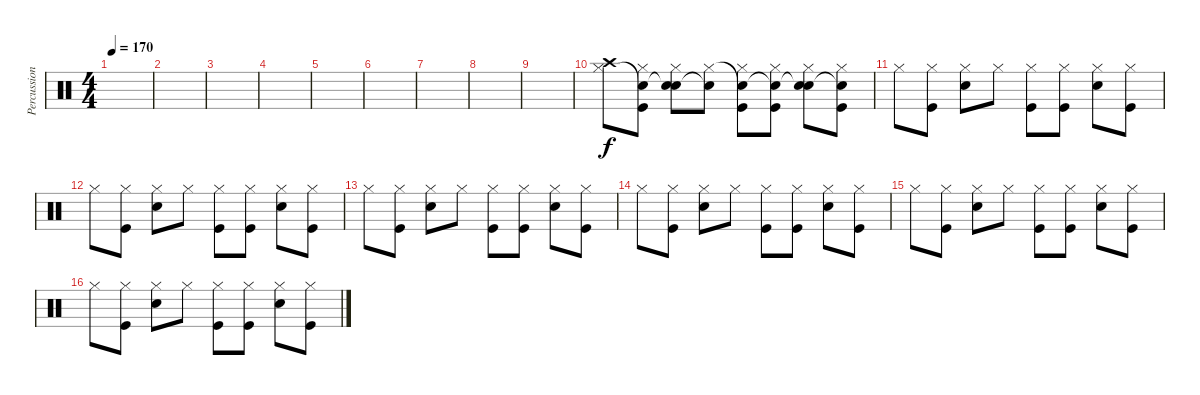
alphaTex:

\track ("Percussion" "Percussion") {instrument percussion}
\staff {score}
\articulation defaults
\ts (4 4)
\tempo 170
\clef neutral
\ks c
|
|
|
|
|
|
|
|
|
("Crash high (hit)" "Hi-Hat (closed)").8 ("Kick (hit)" "Snare (hit)"{t} "Hi-Hat (closed)").8 ("Electric Snare (hit)" "Snare (hit)"{t} "Hi-Hat (closed)").8 ("Snare (hit)"{t} "Hi-Hat (closed)").8 ("Kick (hit)" "Snare (hit)"{t} "Hi-Hat (closed)").8 ("Kick (hit)" "Snare (hit)"{t} "Hi-Hat (closed)").8 ("Electric Snare (hit)" "Snare (hit)"{t} "Hi-Hat (closed)").8 ("Kick (hit)" "Snare (hit)"{t} "Hi-Hat (closed)").8 |
"Hi-Hat (closed)".8 ("Kick (hit)" "Hi-Hat (closed)").8 ("Electric Snare (hit)" "Hi-Hat (closed)").8 "Hi-Hat (closed)".8 ("Kick (hit)" "Hi-Hat (closed)").8 ("Kick (hit)" "Hi-Hat (closed)").8 ("Electric Snare (hit)" "Hi-Hat (closed)").8 ("Kick (hit)" "Hi-Hat (closed)").8 |
"Hi-Hat (closed)".8 ("Kick (hit)" "Hi-Hat (closed)").8 ("Electric Snare (hit)" "Hi-Hat (closed)").8 "Hi-Hat (closed)".8 ("Kick (hit)" "Hi-Hat (closed)").8 ("Kick (hit)" "Hi-Hat (closed)").8 ("Electric Snare (hit)" "Hi-Hat (closed)").8 ("Kick (hit)" "Hi-Hat (closed)").8 |
"Hi-Hat (closed)".8 ("Kick (hit)" "Hi-Hat (closed)").8 ("Electric Snare (hit)" "Hi-Hat (closed)").8 "Hi-Hat (closed)".8 ("Kick (hit)" "Hi-Hat (closed)").8 ("Kick (hit)" "Hi-Hat (closed)").8 ("Electric Snare (hit)" "Hi-Hat (closed)").8 ("Kick (hit)" "Hi-Hat (closed)").8 |
"Hi-Hat (closed)".8 ("Kick (hit)" "Hi-Hat (closed)").8 ("Electric Snare (hit)" "Hi-Hat (closed)").8 "Hi-Hat (closed)".8 ("Kick (hit)" "Hi-Hat (closed)").8 ("Kick (hit)" "Hi-Hat (closed)").8 ("Electric Snare (hit)" "Hi-Hat (closed)").8 ("Kick (hit)" "Hi-Hat (closed)").8 |
"Hi-Hat (closed)".8 ("Kick (hit)" "Hi-Hat (closed)").8 ("Electric Snare (hit)" "Hi-Hat (closed)").8 "Hi-Hat (closed)".8 ("Kick (hit)" "Hi-Hat (closed)").8 ("Kick (hit)" "Hi-Hat (closed)").8 ("Electric Snare (hit)" "Hi-Hat (closed)").8 ("Kick (hit)" "Hi-Hat (closed)").8 |
"Hi-Hat (closed)".8 ("Kick (hit)" "Hi-Hat (closed)").8 ("Electric Snare (hit)" "Hi-Hat (closed)").8 "Hi-Hat (closed)".8 ("Kick (hit)" "Hi-Hat (closed)").8 ("Kick (hit)" "Hi-Hat (closed)").8 ("Electric Snare (hit)" "Hi-Hat (closed)").8 ("Kick (hit)" "Hi-Hat (closed)").8
